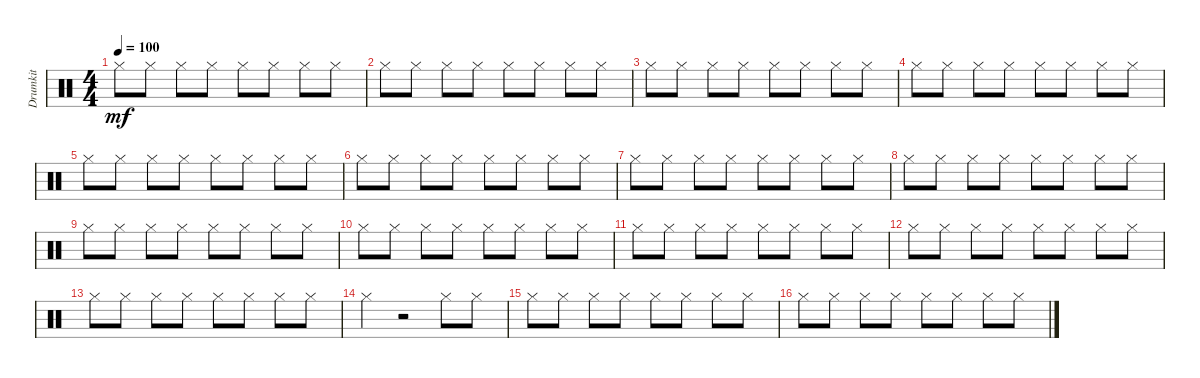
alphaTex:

\track ("Drumkit" "Drumkit") {instrument percussion}
\staff {score}
\articulation defaults
\ts (4 4)
\tempo 100
\clef neutral
\ks aminor "Hi-Hat (closed)".8{dy mf} "Hi-Hat (closed)".8 "Hi-Hat (closed)".8 "Hi-Hat (closed)".8 "Hi-Hat (closed)".8 "Hi-Hat (closed)".8 "Hi-Hat (closed)".8 "Hi-Hat (closed)".8
|
"Hi-Hat (closed)".8 "Hi-Hat (closed)".8 "Hi-Hat (closed)".8 "Hi-Hat (closed)".8 "Hi-Hat (closed)".8 "Hi-Hat (closed)".8 "Hi-Hat (closed)".8 "Hi-Hat (closed)".8 |
"Hi-Hat (closed)".8 "Hi-Hat (closed)".8 "Hi-Hat (closed)".8 "Hi-Hat (closed)".8 "Hi-Hat (closed)".8 "Hi-Hat (closed)".8 "Hi-Hat (closed)".8 "Hi-Hat (closed)".8 |
"Hi-Hat (closed)".8 "Hi-Hat (closed)".8 "Hi-Hat (closed)".8 "Hi-Hat (closed)".8 "Hi-Hat (closed)".8 "Hi-Hat (closed)".8 "Hi-Hat (closed)".8 "Hi-Hat (closed)".8 |
"Hi-Hat (closed)".8 "Hi-Hat (closed)".8 "Hi-Hat (closed)".8 "Hi-Hat (closed)".8 "Hi-Hat (closed)".8 "Hi-Hat (closed)".8 "Hi-Hat (closed)".8 "Hi-Hat (closed)".8 |
"Hi-Hat (closed)".8 "Hi-Hat (closed)".8 "Hi-Hat (closed)".8 "Hi-Hat (closed)".8 "Hi-Hat (closed)".8 "Hi-Hat (closed)".8 "Hi-Hat (closed)".8 "Hi-Hat (closed)".8 |
"Hi-Hat (closed)".8 "Hi-Hat (closed)".8 "Hi-Hat (closed)".8 "Hi-Hat (closed)".8 "Hi-Hat (closed)".8 "Hi-Hat (closed)".8 "Hi-Hat (closed)".8 "Hi-Hat (closed)".8 |
"Hi-Hat (closed)".8 "Hi-Hat (closed)".8 "Hi-Hat (closed)".8 "Hi-Hat (closed)".8 "Hi-Hat (closed)".8 "Hi-Hat (closed)".8 "Hi-Hat (closed)".8 "Hi-Hat (closed)".8 |
"Hi-Hat (closed)".8 "Hi-Hat (closed)".8 "Hi-Hat (closed)".8 "Hi-Hat (closed)".8 "Hi-Hat (closed)".8 "Hi-Hat (closed)".8 "Hi-Hat (closed)".8 "Hi-Hat (closed)".8 |
"Hi-Hat (closed)".8 "Hi-Hat (closed)".8 "Hi-Hat (closed)".8 "Hi-Hat (closed)".8 "Hi-Hat (closed)".8 "Hi-Hat (closed)".8 "Hi-Hat (closed)".8 "Hi-Hat (closed)".8 |
"Hi-Hat (closed)".8 "Hi-Hat (closed)".8 "Hi-Hat (closed)".8 "Hi-Hat (closed)".8 "Hi-Hat (closed)".8 "Hi-Hat (closed)".8 "Hi-Hat (closed)".8 "Hi-Hat (closed)".8 |
"Hi-Hat (closed)".8 "Hi-Hat (closed)".8 "Hi-Hat (closed)".8 "Hi-Hat (closed)".8 "Hi-Hat (closed)".8 "Hi-Hat (closed)".8 "Hi-Hat (closed)".8 "Hi-Hat (closed)".8 |
"Hi-Hat (closed)".8 "Hi-Hat (closed)".8 "Hi-Hat (closed)".8 "Hi-Hat (closed)".8 "Hi-Hat (closed)".8 "Hi-Hat (closed)".8 "Hi-Hat (closed)".8 "Hi-Hat (closed)".8 |
"Hi-Hat (closed)".4 r.2 "Hi-Hat (closed)".8 "Hi-Hat (closed)".8 |
"Hi-Hat (closed)".8 "Hi-Hat (closed)".8 "Hi-Hat (closed)".8 "Hi-Hat (closed)".8 "Hi-Hat (closed)".8 "Hi-Hat (closed)".8 "Hi-Hat (closed)".8 "Hi-Hat (closed)".8 |
"Hi-Hat (closed)".8 "Hi-Hat (closed)".8 "Hi-Hat (closed)".8 "Hi-Hat (closed)".8 "Hi-Hat (closed)".8 "Hi-Hat (closed)".8 "Hi-Hat (closed)".8 "Hi-Hat (closed)".8
